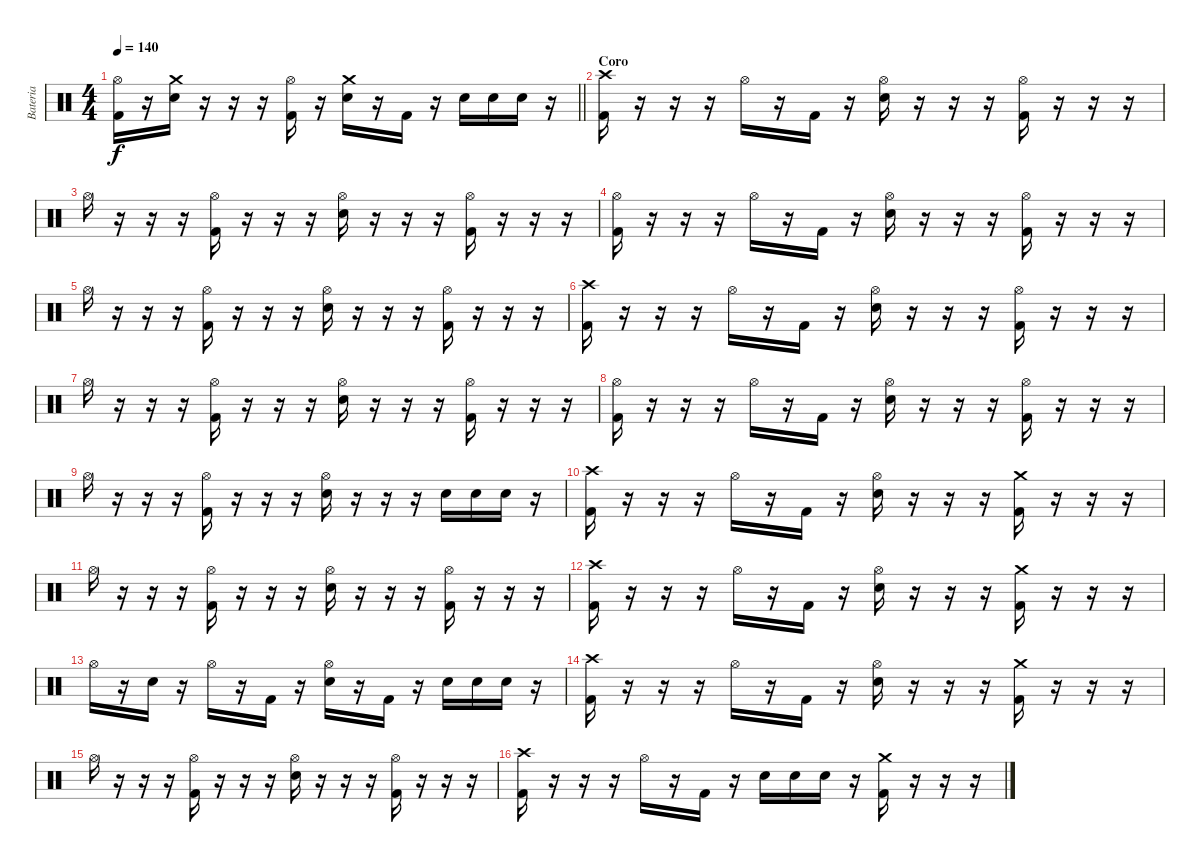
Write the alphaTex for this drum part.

\track ("Bateria" "Bateria") {instrument percussion}
\staff {score}
\articulation defaults
\ts (4 4)
\tempo 140
\clef neutral
\barLineRight lightlight
\ks c
("Hi-Hat (open)" "Kick (hit) 2").16{dy f} r.16 ("Crash medium (hit)" "Snare (hit) 2").16 r.16 r.16 r.16 ("Hi-Hat (open)" "Kick (hit) 2").16 r.16 ("Crash medium (hit)" "Snare (hit) 2").16 r.16 "Kick (hit) 2".16 r.16 "Snare (hit) 2".16 "Snare (hit) 2".16 "Snare (hit) 2".16 r.16 |
\section ("" "Coro")
("Crash high (hit)" "Kick (hit) 2").16 r.16 r.16 r.16 "Hi-Hat (open)".16 r.16 "Kick (hit) 2".16 r.16 ("Hi-Hat (open)" "Snare (hit) 2").16 r.16 r.16 r.16 ("Hi-Hat (open)" "Kick (hit) 2").16 r.16 r.16 r.16 |
"Hi-Hat (open)".16 r.16 r.16 r.16 ("Hi-Hat (open)" "Kick (hit) 2").16 r.16 r.16 r.16 ("Hi-Hat (open)" "Snare (hit) 2").16 r.16 r.16 r.16 ("Hi-Hat (open)" "Kick (hit) 2").16 r.16 r.16 r.16 |
("Hi-Hat (open)" "Kick (hit) 2").16 r.16 r.16 r.16 "Hi-Hat (open)".16 r.16 "Kick (hit) 2".16 r.16 ("Hi-Hat (open)" "Snare (hit) 2").16 r.16 r.16 r.16 ("Hi-Hat (open)" "Kick (hit) 2").16 r.16 r.16 r.16 |
"Hi-Hat (open)".16 r.16 r.16 r.16 ("Hi-Hat (open)" "Kick (hit) 2").16 r.16 r.16 r.16 ("Hi-Hat (open)" "Snare (hit) 2").16 r.16 r.16 r.16 ("Hi-Hat (open)" "Kick (hit) 2").16 r.16 r.16 r.16 |
("Crash high (hit)" "Kick (hit) 2").16 r.16 r.16 r.16 "Hi-Hat (open)".16 r.16 "Kick (hit) 2".16 r.16 ("Hi-Hat (open)" "Snare (hit) 2").16 r.16 r.16 r.16 ("Hi-Hat (open)" "Kick (hit) 2").16 r.16 r.16 r.16 |
"Hi-Hat (open)".16 r.16 r.16 r.16 ("Hi-Hat (open)" "Kick (hit) 2").16 r.16 r.16 r.16 ("Hi-Hat (open)" "Snare (hit) 2").16 r.16 r.16 r.16 ("Hi-Hat (open)" "Kick (hit) 2").16 r.16 r.16 r.16 |
("Hi-Hat (open)" "Kick (hit) 2").16 r.16 r.16 r.16 "Hi-Hat (open)".16 r.16 "Kick (hit) 2".16 r.16 ("Hi-Hat (open)" "Snare (hit) 2").16 r.16 r.16 r.16 ("Hi-Hat (open)" "Kick (hit) 2").16 r.16 r.16 r.16 |
"Hi-Hat (open)".16 r.16 r.16 r.16 ("Hi-Hat (open)" "Kick (hit) 2").16 r.16 r.16 r.16 ("Hi-Hat (open)" "Snare (hit) 2").16 r.16 r.16 r.16 "Snare (hit) 2".16 "Snare (hit) 2".16 "Snare (hit) 2".16 r.16 |
("Crash high (hit)" "Kick (hit) 2").16 r.16 r.16 r.16 "Hi-Hat (open)".16 r.16 "Kick (hit) 2".16 r.16 ("Hi-Hat (open)" "Snare (hit) 2").16 r.16 r.16 r.16 ("Crash medium (hit)" "Kick (hit) 2").16 r.16 r.16 r.16 |
"Hi-Hat (open)".16 r.16 r.16 r.16 ("Hi-Hat (open)" "Kick (hit) 2").16 r.16 r.16 r.16 ("Hi-Hat (open)" "Snare (hit) 2").16 r.16 r.16 r.16 ("Hi-Hat (open)" "Kick (hit) 2").16 r.16 r.16 r.16 |
("Crash high (hit)" "Kick (hit) 2").16 r.16 r.16 r.16 "Hi-Hat (open)".16 r.16 "Kick (hit) 2".16 r.16 ("Hi-Hat (open)" "Snare (hit) 2").16 r.16 r.16 r.16 ("Crash medium (hit)" "Kick (hit) 2").16 r.16 r.16 r.16 |
"Hi-Hat (open)".16 r.16 "Snare (hit) 2".16 r.16 "Hi-Hat (open)".16 r.16 "Kick (hit) 2".16 r.16 ("Hi-Hat (open)" "Snare (hit) 2").16 r.16 "Kick (hit) 2".16 r.16 "Snare (hit) 2".16 "Snare (hit) 2".16 "Snare (hit) 2".16 r.16 |
("Crash high (hit)" "Kick (hit) 2").16 r.16 r.16 r.16 "Hi-Hat (open)".16 r.16 "Kick (hit) 2".16 r.16 ("Hi-Hat (open)" "Snare (hit) 2").16 r.16 r.16 r.16 ("Crash medium (hit)" "Kick (hit) 2").16 r.16 r.16 r.16 |
"Hi-Hat (open)".16 r.16 r.16 r.16 ("Hi-Hat (open)" "Kick (hit) 2").16 r.16 r.16 r.16 ("Hi-Hat (open)" "Snare (hit) 2").16 r.16 r.16 r.16 ("Hi-Hat (open)" "Kick (hit) 2").16 r.16 r.16 r.16 |
("Crash high (hit)" "Kick (hit) 2").16 r.16 r.16 r.16 "Hi-Hat (open)".16 r.16 "Kick (hit) 2".16 r.16 "Snare (hit) 2".16 "Snare (hit) 2".16 "Snare (hit) 2".16 r.16 ("Crash medium (hit)" "Kick (hit) 2").16 r.16 r.16 r.16
